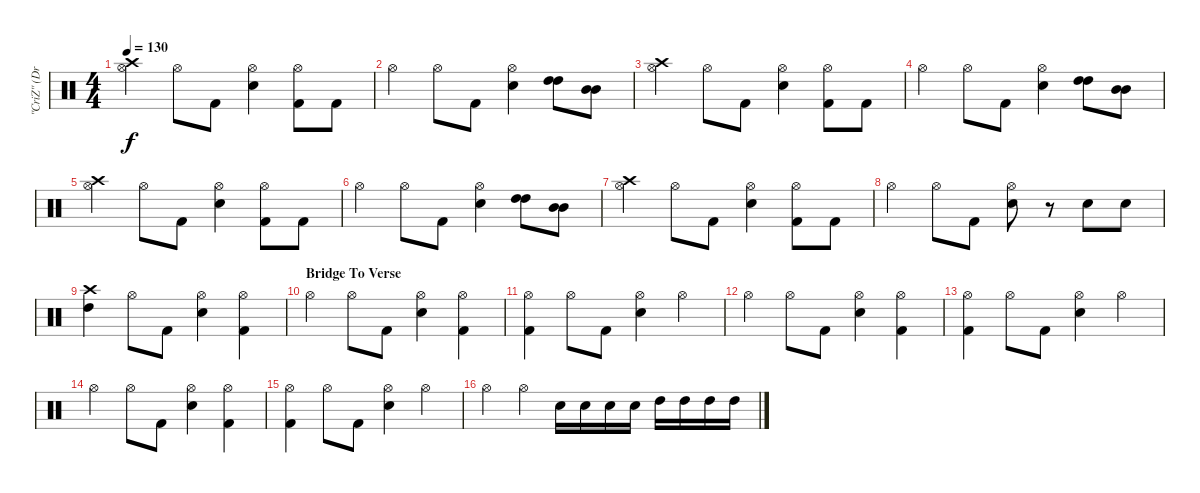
\track ("\"CriZ\" (Drums/Percussion)" "\"CriZ\" (Dr") {instrument percussion}
\staff {score}
\articulation defaults
\ts (4 4)
\tempo 130
\clef neutral
\ks c
("Crash high (hit)" "Hi-Hat (open)").4{dy f} "Hi-Hat (open)".8 "Kick (hit) 2".8 ("Hi-Hat (open)" "Snare (hit) 2").4 ("Hi-Hat (open)" "Kick (hit) 2").8 "Kick (hit) 2".8 |
"Hi-Hat (open)".4 "Hi-Hat (open)".8 "Kick (hit) 2".8 ("Hi-Hat (open)" "Snare (hit) 2").4 ("High Tom (hit)" "High Tom (hit)").8 ("Mid Tom (hit)" "Mid Tom (hit)").8 |
("Crash high (hit)" "Hi-Hat (open)").4 "Hi-Hat (open)".8 "Kick (hit) 2".8 ("Hi-Hat (open)" "Snare (hit) 2").4 ("Hi-Hat (open)" "Kick (hit) 2").8 "Kick (hit) 2".8 |
"Hi-Hat (open)".4 "Hi-Hat (open)".8 "Kick (hit) 2".8 ("Hi-Hat (open)" "Snare (hit) 2").4 ("High Tom (hit)" "High Tom (hit)").8 ("Mid Tom (hit)" "Mid Tom (hit)").8 |
("Crash high (hit)" "Hi-Hat (open)").4 "Hi-Hat (open)".8 "Kick (hit) 2".8 ("Hi-Hat (open)" "Snare (hit) 2").4 ("Hi-Hat (open)" "Kick (hit) 2").8 "Kick (hit) 2".8 |
"Hi-Hat (open)".4 "Hi-Hat (open)".8 "Kick (hit) 2".8 ("Hi-Hat (open)" "Snare (hit) 2").4 ("High Tom (hit)" "High Tom (hit)").8 ("Mid Tom (hit)" "Mid Tom (hit)").8 |
("Crash high (hit)" "Hi-Hat (open)").4 "Hi-Hat (open)".8 "Kick (hit) 2".8 ("Hi-Hat (open)" "Snare (hit) 2").4 ("Hi-Hat (open)" "Kick (hit) 2").8 "Kick (hit) 2".8 |
"Hi-Hat (open)".4 "Hi-Hat (open)".8 "Kick (hit) 2".8 ("Hi-Hat (open)" "Snare (hit) 2").8 r.8 "Snare (hit) 2".8 "Snare (hit) 2".8 |
("Crash high (hit)" "High Tom (hit)").4 "Hi-Hat (open)".8 "Kick (hit) 2".8 ("Hi-Hat (open)" "Snare (hit) 2").4 ("Hi-Hat (open)" "Kick (hit) 2").4 |
\section ("" "Bridge To Verse")
"Hi-Hat (open)".4 "Hi-Hat (open)".8 "Kick (hit) 2".8 ("Hi-Hat (open)" "Snare (hit) 2").4 ("Hi-Hat (open)" "Kick (hit) 2").4 |
("Hi-Hat (open)" "Kick (hit) 2").4 "Hi-Hat (open)".8 "Kick (hit) 2".8 ("Hi-Hat (open)" "Snare (hit) 2").4 "Hi-Hat (open)".4 |
"Hi-Hat (open)".4 "Hi-Hat (open)".8 "Kick (hit) 2".8 ("Hi-Hat (open)" "Snare (hit) 2").4 ("Hi-Hat (open)" "Kick (hit) 2").4 |
("Hi-Hat (open)" "Kick (hit) 2").4 "Hi-Hat (open)".8 "Kick (hit) 2".8 ("Hi-Hat (open)" "Snare (hit) 2").4 "Hi-Hat (open)".4 |
"Hi-Hat (open)".4 "Hi-Hat (open)".8 "Kick (hit) 2".8 ("Hi-Hat (open)" "Snare (hit) 2").4 ("Hi-Hat (open)" "Kick (hit) 2").4 |
("Hi-Hat (open)" "Kick (hit) 2").4 "Hi-Hat (open)".8 "Kick (hit) 2".8 ("Hi-Hat (open)" "Snare (hit) 2").4 "Hi-Hat (open)".4 |
"Hi-Hat (open)".4 "Hi-Hat (open)".4 "Snare (hit) 2".16 "Snare (hit) 2".16 "Snare (hit) 2".16 "Snare (hit) 2".16 "High Tom (hit)".16 "High Tom (hit)".16 "High Tom (hit)".16 "High Tom (hit)".16
